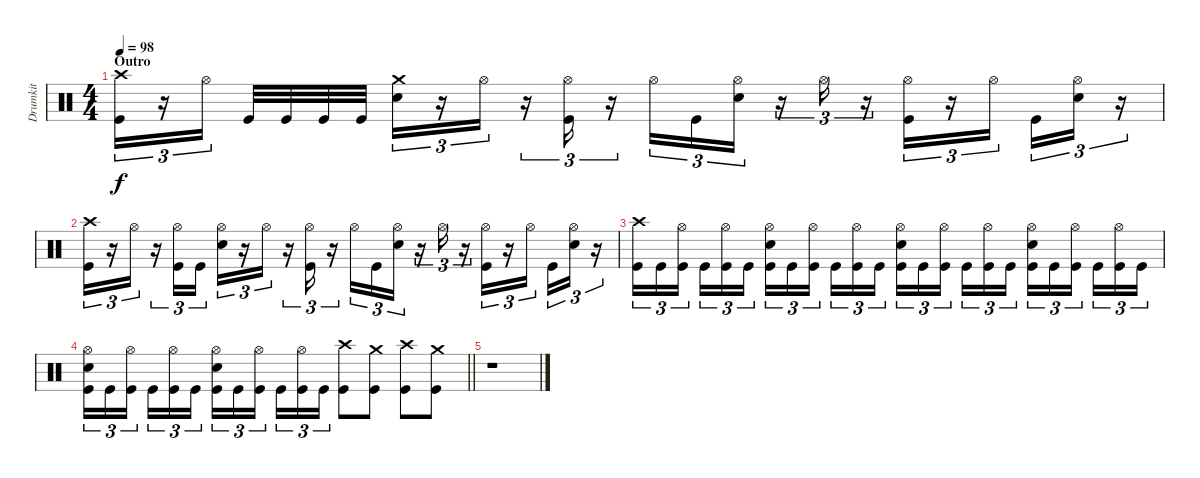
\track ("Drumkit" "Drumkit") {instrument percussion}
\staff {score}
\articulation defaults
\ts (4 4)
\section ("" "Outro")
\tempo 98
\clef neutral
\ks c
("Kick (hit)" "Crash high (hit)").16{tu (3 2) dy f} r.16{tu (3 2)} "Hi-Hat (open)".16{tu (3 2)} "Kick (hit)".32 "Kick (hit)".32 "Kick (hit)".32 "Kick (hit)".32 ("Snare (hit) 2" "Crash medium (hit)").16{tu (3 2)} r.16{tu (3 2)} "Hi-Hat (open)".16{tu (3 2)} r.16{tu (3 2)} ("Hi-Hat (open)" "Kick (hit)").16{tu (3 2)} r.16{tu (3 2)} "Hi-Hat (open)".16{tu (3 2)} "Kick (hit)".16{tu (3 2)} ("Hi-Hat (open)" "Snare (hit) 2").16{tu (3 2)} r.16{tu (3 2)} "Hi-Hat (open)".16{tu (3 2)} r.16{tu (3 2)} ("Hi-Hat (open)" "Kick (hit)").16{tu (3 2)} r.16{tu (3 2)} "Hi-Hat (open)".16{tu (3 2)} "Kick (hit)".16{tu (3 2)} ("Hi-Hat (open)" "Snare (hit) 2").16{tu (3 2)} r.16{tu (3 2)} |
("Kick (hit)" "Crash high (hit)").16{tu (3 2)} r.16{tu (3 2)} "Hi-Hat (open)".16{tu (3 2)} r.16{tu (3 2)} ("Hi-Hat (open)" "Kick (hit)").16{tu (3 2)} "Kick (hit)".16{tu (3 2)} ("Snare (hit) 2" "Hi-Hat (open)").16{tu (3 2)} r.16{tu (3 2)} "Hi-Hat (open)".16{tu (3 2)} r.16{tu (3 2)} ("Hi-Hat (open)" "Kick (hit)").16{tu (3 2)} r.16{tu (3 2)} "Hi-Hat (open)".16{tu (3 2)} "Kick (hit)".16{tu (3 2)} ("Hi-Hat (open)" "Snare (hit) 2").16{tu (3 2)} r.16{tu (3 2)} "Hi-Hat (open)".16{tu (3 2)} r.16{tu (3 2)} ("Hi-Hat (open)" "Kick (hit)").16{tu (3 2)} r.16{tu (3 2)} "Hi-Hat (open)".16{tu (3 2)} "Kick (hit)".16{tu (3 2)} ("Hi-Hat (open)" "Snare (hit) 2").16{tu (3 2)} r.16{tu (3 2)} |
("Kick (hit)" "Crash high (hit)").16{tu (3 2)} "Kick (hit)".16{tu (3 2)} ("Hi-Hat (open)" "Kick (hit)").16{tu (3 2)} "Kick (hit)".16{tu (3 2)} ("Hi-Hat (open)" "Kick (hit)").16{tu (3 2)} "Kick (hit)".16{tu (3 2)} ("Snare (hit) 2" "Hi-Hat (open)" "Kick (hit)").16{tu (3 2)} "Kick (hit)".16{tu (3 2)} ("Hi-Hat (open)" "Kick (hit)").16{tu (3 2)} "Kick (hit)".16{tu (3 2)} ("Hi-Hat (open)" "Kick (hit)").16{tu (3 2)} "Kick (hit)".16{tu (3 2)} ("Hi-Hat (open)" "Kick (hit)" "Snare (hit) 2").16{tu (3 2)} "Kick (hit)".16{tu (3 2)} ("Hi-Hat (open)" "Kick (hit)").16{tu (3 2)} "Kick (hit)".16{tu (3 2)} ("Hi-Hat (open)" "Kick (hit)").16{tu (3 2)} "Kick (hit)".16{tu (3 2)} ("Hi-Hat (open)" "Kick (hit)" "Snare (hit) 2").16{tu (3 2)} "Kick (hit)".16{tu (3 2)} ("Hi-Hat (open)" "Kick (hit)").16{tu (3 2)} "Kick (hit)".16{tu (3 2)} ("Hi-Hat (open)" "Kick (hit)").16{tu (3 2)} "Kick (hit)".16{tu (3 2)} |
\barLineRight lightlight
("Kick (hit)" "Snare (hit) 2" "Hi-Hat (open)").16{tu (3 2)} "Kick (hit)".16{tu (3 2)} ("Kick (hit)" "Hi-Hat (open)").16{tu (3 2)} "Kick (hit)".16{tu (3 2)} ("Kick (hit)" "Hi-Hat (open)").16{tu (3 2)} "Kick (hit)".16{tu (3 2)} ("Kick (hit)" "Hi-Hat (open)" "Snare (hit) 2").16{tu (3 2)} "Kick (hit)".16{tu (3 2)} ("Kick (hit)" "Hi-Hat (open)").16{tu (3 2)} "Kick (hit)".16{tu (3 2)} ("Kick (hit)" "Hi-Hat (open)").16{tu (3 2)} "Kick (hit)".16{tu (3 2)} ("Crash high (hit)" "Kick (hit)").8 ("Crash medium (hit)" "Kick (hit)").8 ("Kick (hit)" "Crash high (hit)").8 ("Kick (hit)" "Crash medium (hit)").8 |
r.1
